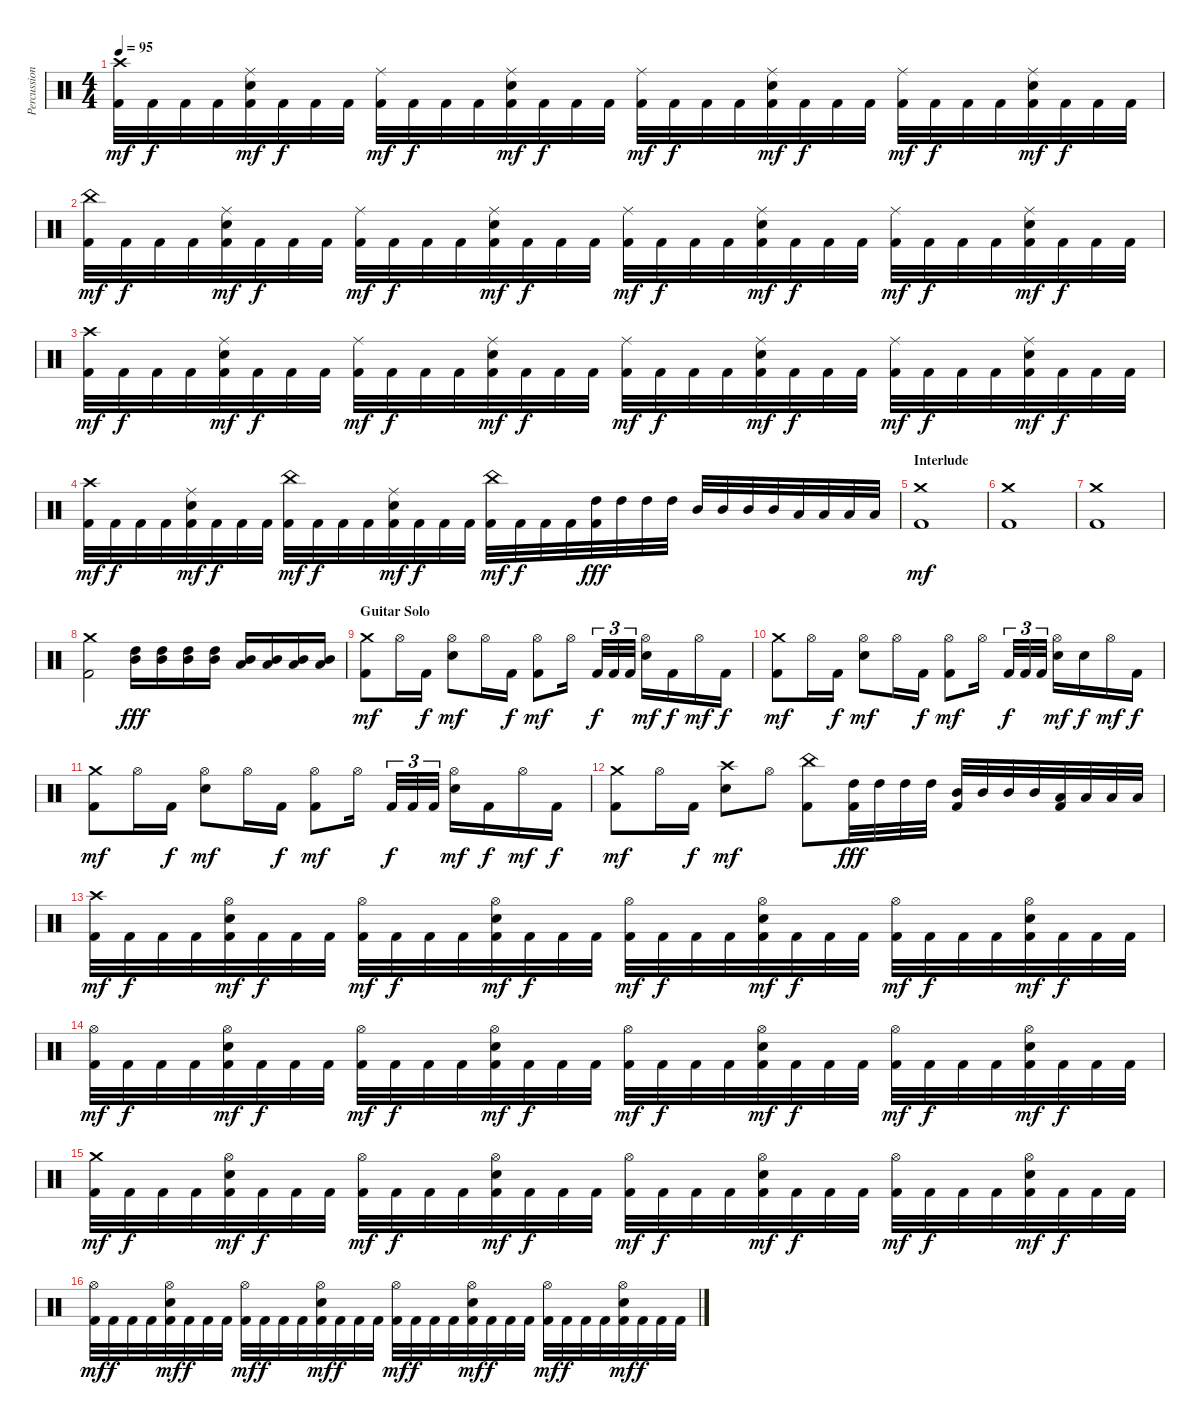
\track ("Percussion" "Percussion") {instrument percussion}
\staff {score}
\articulation defaults
\ts (4 4)
\tempo 95
\clef neutral
\ks c
("Crash high (hit)" "Kick (hit) 2").32{dy mf} "Kick (hit) 2".32{dy f} "Kick (hit) 2".32 "Kick (hit) 2".32 ("Ride (middle)" "Electric Snare (hit)" "Kick (hit) 2").32{dy mf} "Kick (hit) 2".32{dy f} "Kick (hit) 2".32 "Kick (hit) 2".32 ("Ride (middle)" "Kick (hit) 2").32{dy mf} "Kick (hit) 2".32{dy f} "Kick (hit) 2".32 "Kick (hit) 2".32 ("Ride (middle)" "Electric Snare (hit)" "Kick (hit) 2").32{dy mf} "Kick (hit) 2".32{dy f} "Kick (hit) 2".32 "Kick (hit) 2".32 ("Ride (middle)" "Kick (hit) 2").32{dy mf} "Kick (hit) 2".32{dy f} "Kick (hit) 2".32 "Kick (hit) 2".32 ("Ride (middle)" "Electric Snare (hit)" "Kick (hit) 2").32{dy mf} "Kick (hit) 2".32{dy f} "Kick (hit) 2".32 "Kick (hit) 2".32 ("Ride (middle)" "Kick (hit) 2").32{dy mf} "Kick (hit) 2".32{dy f} "Kick (hit) 2".32 "Kick (hit) 2".32 ("Ride (middle)" "Electric Snare (hit)" "Kick (hit) 2").32{dy mf} "Kick (hit) 2".32{dy f} "Kick (hit) 2".32 "Kick (hit) 2".32 |
("China (hit)" "Kick (hit) 2").32{dy mf} "Kick (hit) 2".32{dy f} "Kick (hit) 2".32 "Kick (hit) 2".32 ("Ride (middle)" "Electric Snare (hit)" "Kick (hit) 2").32{dy mf} "Kick (hit) 2".32{dy f} "Kick (hit) 2".32 "Kick (hit) 2".32 ("Ride (middle)" "Kick (hit) 2").32{dy mf} "Kick (hit) 2".32{dy f} "Kick (hit) 2".32 "Kick (hit) 2".32 ("Ride (middle)" "Electric Snare (hit)" "Kick (hit) 2").32{dy mf} "Kick (hit) 2".32{dy f} "Kick (hit) 2".32 "Kick (hit) 2".32 ("Ride (middle)" "Kick (hit) 2").32{dy mf} "Kick (hit) 2".32{dy f} "Kick (hit) 2".32 "Kick (hit) 2".32 ("Ride (middle)" "Electric Snare (hit)" "Kick (hit) 2").32{dy mf} "Kick (hit) 2".32{dy f} "Kick (hit) 2".32 "Kick (hit) 2".32 ("Ride (middle)" "Kick (hit) 2").32{dy mf} "Kick (hit) 2".32{dy f} "Kick (hit) 2".32 "Kick (hit) 2".32 ("Ride (middle)" "Electric Snare (hit)" "Kick (hit) 2").32{dy mf} "Kick (hit) 2".32{dy f} "Kick (hit) 2".32 "Kick (hit) 2".32 |
("Crash high (hit)" "Kick (hit) 2").32{dy mf} "Kick (hit) 2".32{dy f} "Kick (hit) 2".32 "Kick (hit) 2".32 ("Ride (middle)" "Electric Snare (hit)" "Kick (hit) 2").32{dy mf} "Kick (hit) 2".32{dy f} "Kick (hit) 2".32 "Kick (hit) 2".32 ("Ride (middle)" "Kick (hit) 2").32{dy mf} "Kick (hit) 2".32{dy f} "Kick (hit) 2".32 "Kick (hit) 2".32 ("Ride (middle)" "Electric Snare (hit)" "Kick (hit) 2").32{dy mf} "Kick (hit) 2".32{dy f} "Kick (hit) 2".32 "Kick (hit) 2".32 ("Ride (middle)" "Kick (hit) 2").32{dy mf} "Kick (hit) 2".32{dy f} "Kick (hit) 2".32 "Kick (hit) 2".32 ("Ride (middle)" "Electric Snare (hit)" "Kick (hit) 2").32{dy mf} "Kick (hit) 2".32{dy f} "Kick (hit) 2".32 "Kick (hit) 2".32 ("Ride (middle)" "Kick (hit) 2").32{dy mf} "Kick (hit) 2".32{dy f} "Kick (hit) 2".32 "Kick (hit) 2".32 ("Ride (middle)" "Electric Snare (hit)" "Kick (hit) 2").32{dy mf} "Kick (hit) 2".32{dy f} "Kick (hit) 2".32 "Kick (hit) 2".32 |
("Crash high (hit)" "Kick (hit) 2").32{dy mf} "Kick (hit) 2".32{dy f} "Kick (hit) 2".32 "Kick (hit) 2".32 ("Ride (middle)" "Electric Snare (hit)" "Kick (hit) 2").32{dy mf} "Kick (hit) 2".32{dy f} "Kick (hit) 2".32 "Kick (hit) 2".32 ("China (hit)" "Kick (hit) 2").32{dy mf} "Kick (hit) 2".32{dy f} "Kick (hit) 2".32 "Kick (hit) 2".32 ("Ride (middle)" "Electric Snare (hit)" "Kick (hit) 2").32{dy mf} "Kick (hit) 2".32{dy f} "Kick (hit) 2".32 "Kick (hit) 2".32 ("China (hit)" "Kick (hit) 2").32{dy mf} "Kick (hit) 2".32{dy f} "Kick (hit) 2".32 "Kick (hit) 2".32 ("High Tom (hit)" "Kick (hit) 2").32{dy fff} "High Tom (hit)".32 "High Tom (hit)".32 "High Tom (hit)".32 "Mid Tom (hit)".32 "Mid Tom (hit)".32 "Mid Tom (hit)".32 "Mid Tom (hit)".32 "Low Tom (hit)".32 "Low Tom (hit)".32 "Low Tom (hit)".32 "Low Tom (hit)".32 |
\section ("" "Interlude")
("Crash medium (hit)" "Kick (hit) 2").1{dy mf} |
("Crash medium (hit)" "Kick (hit) 2").1 |
("Crash medium (hit)" "Kick (hit) 2").1 |
("Crash medium (hit)" "Kick (hit) 2").2 ("High Tom (hit)" "Mid Tom (hit)").16{dy fff} ("High Tom (hit)" "Mid Tom (hit)").16 ("High Tom (hit)" "Mid Tom (hit)").16 ("High Tom (hit)" "Mid Tom (hit)").16 ("Mid Tom (hit)" "Low Tom (hit)").16 ("Mid Tom (hit)" "Low Tom (hit)").16 ("Mid Tom (hit)" "Low Tom (hit)").16 ("Mid Tom (hit)" "Low Tom (hit)").16 |
\section ("" "Guitar Solo")
("Crash medium (hit)" "Kick (hit) 2").8{dy mf} "Hi-Hat (open)".16 "Kick (hit) 2".16{dy f} ("Hi-Hat (open)" "Electric Snare (hit)").8{dy mf} "Hi-Hat (open)".16 "Kick (hit) 2".16{dy f} ("Hi-Hat (open)" "Kick (hit) 2").8{dy mf} "Hi-Hat (open)".16 "Kick (hit) 2".32{tu (3 2) dy f} "Kick (hit) 2".32{tu (3 2)} "Kick (hit) 2".32{tu (3 2)} ("Hi-Hat (open)" "Electric Snare (hit)").16{dy mf} "Kick (hit) 2".16{dy f} "Hi-Hat (open)".16{dy mf} "Kick (hit) 2".16{dy f} |
("Crash medium (hit)" "Kick (hit) 2").8{dy mf} "Hi-Hat (open)".16 "Kick (hit) 2".16{dy f} ("Hi-Hat (open)" "Electric Snare (hit)").8{dy mf} "Hi-Hat (open)".16 "Kick (hit) 2".16{dy f} ("Hi-Hat (open)" "Kick (hit) 2").8{dy mf} "Hi-Hat (open)".16 "Kick (hit) 2".32{tu (3 2) dy f} "Kick (hit) 2".32{tu (3 2)} "Kick (hit) 2".32{tu (3 2)} ("Hi-Hat (open)" "Electric Snare (hit)").16{dy mf} "Electric Snare (hit)".16{dy f} "Hi-Hat (open)".16{dy mf} "Kick (hit) 2".16{dy f} |
("Crash medium (hit)" "Kick (hit) 2").8{dy mf} "Hi-Hat (open)".16 "Kick (hit) 2".16{dy f} ("Hi-Hat (open)" "Electric Snare (hit)").8{dy mf} "Hi-Hat (open)".16 "Kick (hit) 2".16{dy f} ("Hi-Hat (open)" "Kick (hit) 2").8{dy mf} "Hi-Hat (open)".16 "Kick (hit) 2".32{tu (3 2) dy f} "Kick (hit) 2".32{tu (3 2)} "Kick (hit) 2".32{tu (3 2)} ("Hi-Hat (open)" "Electric Snare (hit)").16{dy mf} "Kick (hit) 2".16{dy f} "Hi-Hat (open)".16{dy mf} "Kick (hit) 2".16{dy f} |
("Crash medium (hit)" "Kick (hit) 2").8{dy mf} "Hi-Hat (open)".16 "Kick (hit) 2".16{dy f} ("Crash high (hit)" "Electric Snare (hit)").8{dy mf} "Hi-Hat (open)".8 ("China (hit)" "Kick (hit) 2").8 ("High Tom (hit)" "Kick (hit) 2").32{dy fff} "High Tom (hit)".32 "High Tom (hit)".32 "High Tom (hit)".32 ("Mid Tom (hit)" "Kick (hit) 2").32 "Mid Tom (hit)".32 "Mid Tom (hit)".32 "Mid Tom (hit)".32 ("Low Tom (hit)" "Kick (hit) 2").32 "Low Tom (hit)".32 "Low Tom (hit)".32 "Low Tom (hit)".32 |
("Crash high (hit)" "Kick (hit) 2").32{dy mf} "Kick (hit) 2".32{dy f} "Kick (hit) 2".32 "Kick (hit) 2".32 ("Hi-Hat (open)" "Electric Snare (hit)" "Kick (hit) 2").32{dy mf} "Kick (hit) 2".32{dy f} "Kick (hit) 2".32 "Kick (hit) 2".32 ("Hi-Hat (open)" "Kick (hit) 2").32{dy mf} "Kick (hit) 2".32{dy f} "Kick (hit) 2".32 "Kick (hit) 2".32 ("Hi-Hat (open)" "Electric Snare (hit)" "Kick (hit) 2").32{dy mf} "Kick (hit) 2".32{dy f} "Kick (hit) 2".32 "Kick (hit) 2".32 ("Hi-Hat (open)" "Kick (hit) 2").32{dy mf} "Kick (hit) 2".32{dy f} "Kick (hit) 2".32 "Kick (hit) 2".32 ("Hi-Hat (open)" "Electric Snare (hit)" "Kick (hit) 2").32{dy mf} "Kick (hit) 2".32{dy f} "Kick (hit) 2".32 "Kick (hit) 2".32 ("Hi-Hat (open)" "Kick (hit) 2").32{dy mf} "Kick (hit) 2".32{dy f} "Kick (hit) 2".32 "Kick (hit) 2".32 ("Hi-Hat (open)" "Electric Snare (hit)" "Kick (hit) 2").32{dy mf} "Kick (hit) 2".32{dy f} "Kick (hit) 2".32 "Kick (hit) 2".32 |
("Hi-Hat (open)" "Kick (hit) 2").32{dy mf} "Kick (hit) 2".32{dy f} "Kick (hit) 2".32 "Kick (hit) 2".32 ("Hi-Hat (open)" "Electric Snare (hit)" "Kick (hit) 2").32{dy mf} "Kick (hit) 2".32{dy f} "Kick (hit) 2".32 "Kick (hit) 2".32 ("Hi-Hat (open)" "Kick (hit) 2").32{dy mf} "Kick (hit) 2".32{dy f} "Kick (hit) 2".32 "Kick (hit) 2".32 ("Hi-Hat (open)" "Electric Snare (hit)" "Kick (hit) 2").32{dy mf} "Kick (hit) 2".32{dy f} "Kick (hit) 2".32 "Kick (hit) 2".32 ("Hi-Hat (open)" "Kick (hit) 2").32{dy mf} "Kick (hit) 2".32{dy f} "Kick (hit) 2".32 "Kick (hit) 2".32 ("Hi-Hat (open)" "Electric Snare (hit)" "Kick (hit) 2").32{dy mf} "Kick (hit) 2".32{dy f} "Kick (hit) 2".32 "Kick (hit) 2".32 ("Hi-Hat (open)" "Kick (hit) 2").32{dy mf} "Kick (hit) 2".32{dy f} "Kick (hit) 2".32 "Kick (hit) 2".32 ("Hi-Hat (open)" "Electric Snare (hit)" "Kick (hit) 2").32{dy mf} "Kick (hit) 2".32{dy f} "Kick (hit) 2".32 "Kick (hit) 2".32 |
("Crash medium (hit)" "Kick (hit) 2").32{dy mf} "Kick (hit) 2".32{dy f} "Kick (hit) 2".32 "Kick (hit) 2".32 ("Hi-Hat (open)" "Electric Snare (hit)" "Kick (hit) 2").32{dy mf} "Kick (hit) 2".32{dy f} "Kick (hit) 2".32 "Kick (hit) 2".32 ("Hi-Hat (open)" "Kick (hit) 2").32{dy mf} "Kick (hit) 2".32{dy f} "Kick (hit) 2".32 "Kick (hit) 2".32 ("Hi-Hat (open)" "Electric Snare (hit)" "Kick (hit) 2").32{dy mf} "Kick (hit) 2".32{dy f} "Kick (hit) 2".32 "Kick (hit) 2".32 ("Hi-Hat (open)" "Kick (hit) 2").32{dy mf} "Kick (hit) 2".32{dy f} "Kick (hit) 2".32 "Kick (hit) 2".32 ("Hi-Hat (open)" "Electric Snare (hit)" "Kick (hit) 2").32{dy mf} "Kick (hit) 2".32{dy f} "Kick (hit) 2".32 "Kick (hit) 2".32 ("Hi-Hat (open)" "Kick (hit) 2").32{dy mf} "Kick (hit) 2".32{dy f} "Kick (hit) 2".32 "Kick (hit) 2".32 ("Hi-Hat (open)" "Electric Snare (hit)" "Kick (hit) 2").32{dy mf} "Kick (hit) 2".32{dy f} "Kick (hit) 2".32 "Kick (hit) 2".32 |
("Hi-Hat (open)" "Kick (hit) 2").32{dy mf} "Kick (hit) 2".32{dy f} "Kick (hit) 2".32 "Kick (hit) 2".32 ("Hi-Hat (open)" "Electric Snare (hit)" "Kick (hit) 2").32{dy mf} "Kick (hit) 2".32{dy f} "Kick (hit) 2".32 "Kick (hit) 2".32 ("Hi-Hat (open)" "Kick (hit) 2").32{dy mf} "Kick (hit) 2".32{dy f} "Kick (hit) 2".32 "Kick (hit) 2".32 ("Hi-Hat (open)" "Electric Snare (hit)" "Kick (hit) 2").32{dy mf} "Kick (hit) 2".32{dy f} "Kick (hit) 2".32 "Kick (hit) 2".32 ("Hi-Hat (open)" "Kick (hit) 2").32{dy mf} "Kick (hit) 2".32{dy f} "Kick (hit) 2".32 "Kick (hit) 2".32 ("Hi-Hat (open)" "Electric Snare (hit)" "Kick (hit) 2").32{dy mf} "Kick (hit) 2".32{dy f} "Kick (hit) 2".32 "Kick (hit) 2".32 ("Hi-Hat (open)" "Kick (hit) 2").32{dy mf} "Kick (hit) 2".32{dy f} "Kick (hit) 2".32 "Kick (hit) 2".32 ("Hi-Hat (open)" "Electric Snare (hit)" "Kick (hit) 2").32{dy mf} "Kick (hit) 2".32{dy f} "Kick (hit) 2".32 "Kick (hit) 2".32
